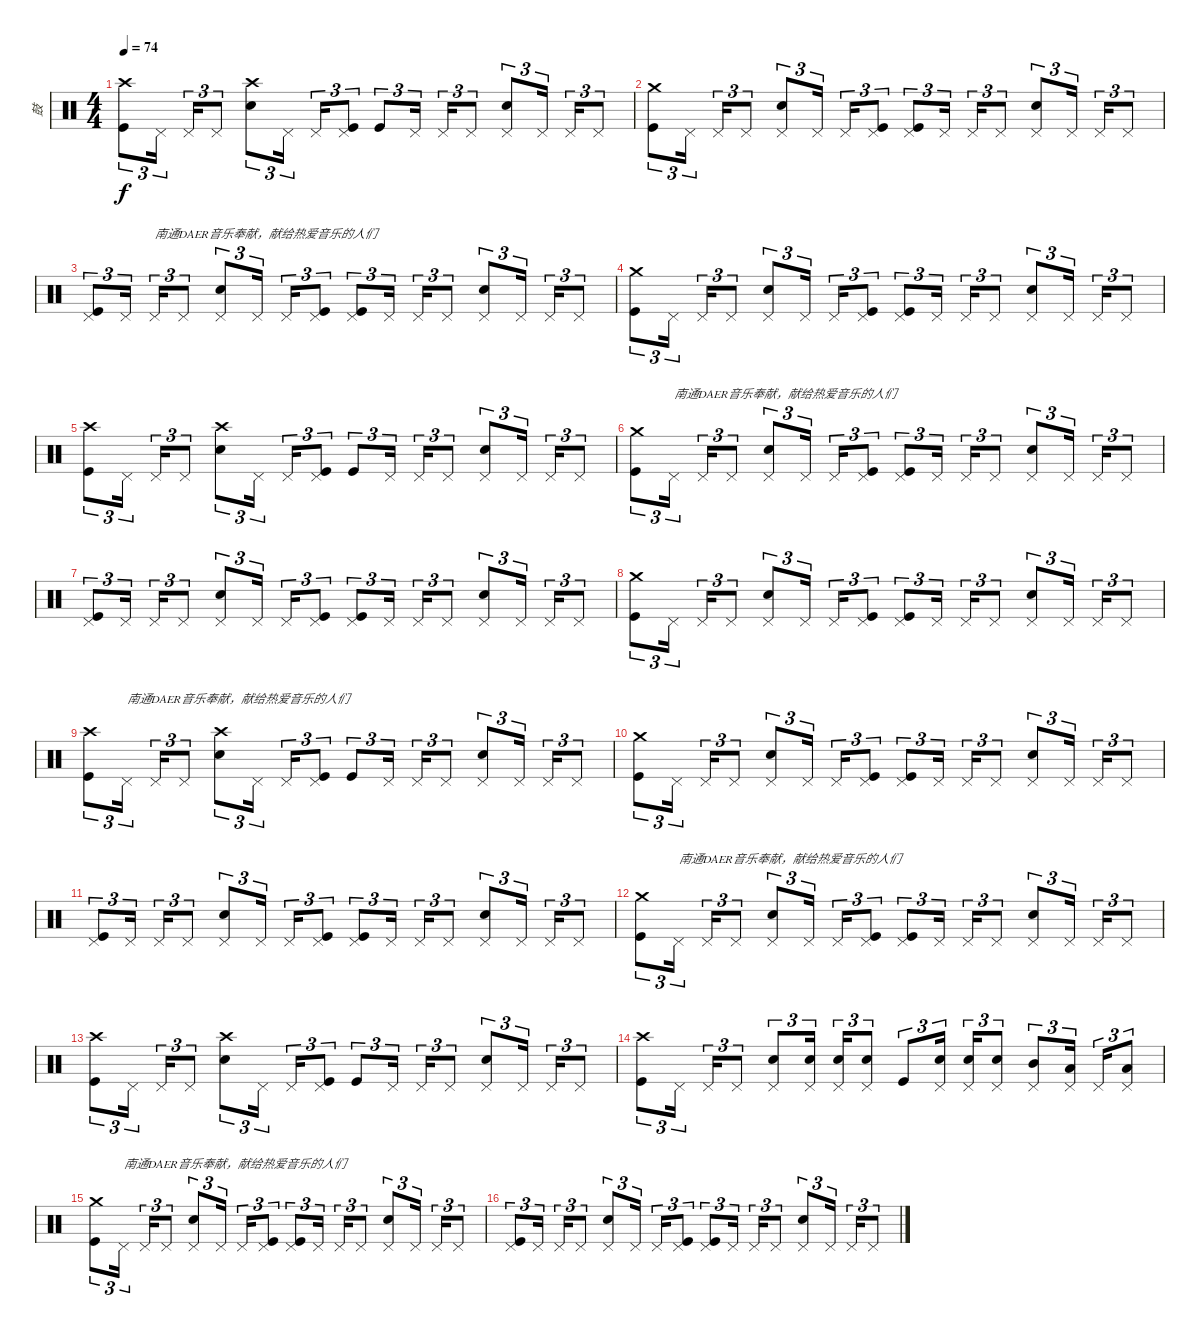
\track ("鼓" "鼓") {instrument percussion}
\staff {score}
\articulation defaults
\ts (4 4)
\tempo 74
\clef neutral
\ks c
("Crash high (hit)" "Kick (hit)").8{tu (3 2) dy f} "Pedal Hi-Hat (hit)".16{tu (3 2)} "Pedal Hi-Hat (hit)".16{tu (3 2)} "Pedal Hi-Hat (hit)".8{tu (3 2)} ("Crash high (hit)" "Electric Snare (hit)").8{tu (3 2)} "Pedal Hi-Hat (hit)".16{tu (3 2)} "Pedal Hi-Hat (hit)".16{tu (3 2)} ("Pedal Hi-Hat (hit)" "Kick (hit)").8{tu (3 2)} "Kick (hit)".8{tu (3 2)} "Pedal Hi-Hat (hit)".16{tu (3 2)} "Pedal Hi-Hat (hit)".16{tu (3 2)} "Pedal Hi-Hat (hit)".8{tu (3 2)} ("Pedal Hi-Hat (hit)" "Electric Snare (hit)").8{tu (3 2)} "Pedal Hi-Hat (hit)".16{tu (3 2)} "Pedal Hi-Hat (hit)".16{tu (3 2)} "Pedal Hi-Hat (hit)".8{tu (3 2)} |
("Crash medium (hit)" "Kick (hit)").8{tu (3 2)} "Pedal Hi-Hat (hit)".16{tu (3 2)} "Pedal Hi-Hat (hit)".16{tu (3 2)} "Pedal Hi-Hat (hit)".8{tu (3 2)} ("Pedal Hi-Hat (hit)" "Electric Snare (hit)").8{tu (3 2)} "Pedal Hi-Hat (hit)".16{tu (3 2)} "Pedal Hi-Hat (hit)".16{tu (3 2)} ("Pedal Hi-Hat (hit)" "Kick (hit)").8{tu (3 2)} ("Pedal Hi-Hat (hit)" "Kick (hit)").8{tu (3 2)} "Pedal Hi-Hat (hit)".16{tu (3 2)} "Pedal Hi-Hat (hit)".16{tu (3 2)} "Pedal Hi-Hat (hit)".8{tu (3 2)} ("Pedal Hi-Hat (hit)" "Electric Snare (hit)").8{tu (3 2)} "Pedal Hi-Hat (hit)".16{tu (3 2)} "Pedal Hi-Hat (hit)".16{tu (3 2)} "Pedal Hi-Hat (hit)".8{tu (3 2)} |
("Pedal Hi-Hat (hit)" "Kick (hit)").8{tu (3 2)} "Pedal Hi-Hat (hit)".16{tu (3 2)} "Pedal Hi-Hat (hit)".16{tu (3 2) txt "南通DAER音乐奉献，献给热爱音乐的人们"} "Pedal Hi-Hat (hit)".8{tu (3 2)} ("Pedal Hi-Hat (hit)" "Electric Snare (hit)").8{tu (3 2)} "Pedal Hi-Hat (hit)".16{tu (3 2)} "Pedal Hi-Hat (hit)".16{tu (3 2)} ("Pedal Hi-Hat (hit)" "Kick (hit)").8{tu (3 2)} ("Pedal Hi-Hat (hit)" "Kick (hit)").8{tu (3 2)} "Pedal Hi-Hat (hit)".16{tu (3 2)} "Pedal Hi-Hat (hit)".16{tu (3 2)} "Pedal Hi-Hat (hit)".8{tu (3 2)} ("Pedal Hi-Hat (hit)" "Electric Snare (hit)").8{tu (3 2)} "Pedal Hi-Hat (hit)".16{tu (3 2)} "Pedal Hi-Hat (hit)".16{tu (3 2)} "Pedal Hi-Hat (hit)".8{tu (3 2)} |
("Crash medium (hit)" "Kick (hit)").8{tu (3 2)} "Pedal Hi-Hat (hit)".16{tu (3 2)} "Pedal Hi-Hat (hit)".16{tu (3 2)} "Pedal Hi-Hat (hit)".8{tu (3 2)} ("Pedal Hi-Hat (hit)" "Electric Snare (hit)").8{tu (3 2)} "Pedal Hi-Hat (hit)".16{tu (3 2)} "Pedal Hi-Hat (hit)".16{tu (3 2)} ("Pedal Hi-Hat (hit)" "Kick (hit)").8{tu (3 2)} ("Pedal Hi-Hat (hit)" "Kick (hit)").8{tu (3 2)} "Pedal Hi-Hat (hit)".16{tu (3 2)} "Pedal Hi-Hat (hit)".16{tu (3 2)} "Pedal Hi-Hat (hit)".8{tu (3 2)} ("Pedal Hi-Hat (hit)" "Electric Snare (hit)").8{tu (3 2)} "Pedal Hi-Hat (hit)".16{tu (3 2)} "Pedal Hi-Hat (hit)".16{tu (3 2)} "Pedal Hi-Hat (hit)".8{tu (3 2)} |
("Crash high (hit)" "Kick (hit)").8{tu (3 2)} "Pedal Hi-Hat (hit)".16{tu (3 2)} "Pedal Hi-Hat (hit)".16{tu (3 2)} "Pedal Hi-Hat (hit)".8{tu (3 2)} ("Crash high (hit)" "Electric Snare (hit)").8{tu (3 2)} "Pedal Hi-Hat (hit)".16{tu (3 2)} "Pedal Hi-Hat (hit)".16{tu (3 2)} ("Pedal Hi-Hat (hit)" "Kick (hit)").8{tu (3 2)} "Kick (hit)".8{tu (3 2)} "Pedal Hi-Hat (hit)".16{tu (3 2)} "Pedal Hi-Hat (hit)".16{tu (3 2)} "Pedal Hi-Hat (hit)".8{tu (3 2)} ("Pedal Hi-Hat (hit)" "Electric Snare (hit)").8{tu (3 2)} "Pedal Hi-Hat (hit)".16{tu (3 2)} "Pedal Hi-Hat (hit)".16{tu (3 2)} "Pedal Hi-Hat (hit)".8{tu (3 2)} |
("Crash medium (hit)" "Kick (hit)").8{tu (3 2)} "Pedal Hi-Hat (hit)".16{tu (3 2) txt "南通DAER音乐奉献，献给热爱音乐的人们"} "Pedal Hi-Hat (hit)".16{tu (3 2)} "Pedal Hi-Hat (hit)".8{tu (3 2)} ("Pedal Hi-Hat (hit)" "Electric Snare (hit)").8{tu (3 2)} "Pedal Hi-Hat (hit)".16{tu (3 2)} "Pedal Hi-Hat (hit)".16{tu (3 2)} ("Pedal Hi-Hat (hit)" "Kick (hit)").8{tu (3 2)} ("Pedal Hi-Hat (hit)" "Kick (hit)").8{tu (3 2)} "Pedal Hi-Hat (hit)".16{tu (3 2)} "Pedal Hi-Hat (hit)".16{tu (3 2)} "Pedal Hi-Hat (hit)".8{tu (3 2)} ("Pedal Hi-Hat (hit)" "Electric Snare (hit)").8{tu (3 2)} "Pedal Hi-Hat (hit)".16{tu (3 2)} "Pedal Hi-Hat (hit)".16{tu (3 2)} "Pedal Hi-Hat (hit)".8{tu (3 2)} |
("Pedal Hi-Hat (hit)" "Kick (hit)").8{tu (3 2)} "Pedal Hi-Hat (hit)".16{tu (3 2)} "Pedal Hi-Hat (hit)".16{tu (3 2)} "Pedal Hi-Hat (hit)".8{tu (3 2)} ("Pedal Hi-Hat (hit)" "Electric Snare (hit)").8{tu (3 2)} "Pedal Hi-Hat (hit)".16{tu (3 2)} "Pedal Hi-Hat (hit)".16{tu (3 2)} ("Pedal Hi-Hat (hit)" "Kick (hit)").8{tu (3 2)} ("Pedal Hi-Hat (hit)" "Kick (hit)").8{tu (3 2)} "Pedal Hi-Hat (hit)".16{tu (3 2)} "Pedal Hi-Hat (hit)".16{tu (3 2)} "Pedal Hi-Hat (hit)".8{tu (3 2)} ("Pedal Hi-Hat (hit)" "Electric Snare (hit)").8{tu (3 2)} "Pedal Hi-Hat (hit)".16{tu (3 2)} "Pedal Hi-Hat (hit)".16{tu (3 2)} "Pedal Hi-Hat (hit)".8{tu (3 2)} |
("Crash medium (hit)" "Kick (hit)").8{tu (3 2)} "Pedal Hi-Hat (hit)".16{tu (3 2)} "Pedal Hi-Hat (hit)".16{tu (3 2)} "Pedal Hi-Hat (hit)".8{tu (3 2)} ("Pedal Hi-Hat (hit)" "Electric Snare (hit)").8{tu (3 2)} "Pedal Hi-Hat (hit)".16{tu (3 2)} "Pedal Hi-Hat (hit)".16{tu (3 2)} ("Pedal Hi-Hat (hit)" "Kick (hit)").8{tu (3 2)} ("Pedal Hi-Hat (hit)" "Kick (hit)").8{tu (3 2)} "Pedal Hi-Hat (hit)".16{tu (3 2)} "Pedal Hi-Hat (hit)".16{tu (3 2)} "Pedal Hi-Hat (hit)".8{tu (3 2)} ("Pedal Hi-Hat (hit)" "Electric Snare (hit)").8{tu (3 2)} "Pedal Hi-Hat (hit)".16{tu (3 2)} "Pedal Hi-Hat (hit)".16{tu (3 2)} "Pedal Hi-Hat (hit)".8{tu (3 2)} |
("Crash high (hit)" "Kick (hit)").8{tu (3 2)} "Pedal Hi-Hat (hit)".16{tu (3 2) txt "南通DAER音乐奉献，献给热爱音乐的人们"} "Pedal Hi-Hat (hit)".16{tu (3 2)} "Pedal Hi-Hat (hit)".8{tu (3 2)} ("Crash high (hit)" "Electric Snare (hit)").8{tu (3 2)} "Pedal Hi-Hat (hit)".16{tu (3 2)} "Pedal Hi-Hat (hit)".16{tu (3 2)} ("Pedal Hi-Hat (hit)" "Kick (hit)").8{tu (3 2)} "Kick (hit)".8{tu (3 2)} "Pedal Hi-Hat (hit)".16{tu (3 2)} "Pedal Hi-Hat (hit)".16{tu (3 2)} "Pedal Hi-Hat (hit)".8{tu (3 2)} ("Pedal Hi-Hat (hit)" "Electric Snare (hit)").8{tu (3 2)} "Pedal Hi-Hat (hit)".16{tu (3 2)} "Pedal Hi-Hat (hit)".16{tu (3 2)} "Pedal Hi-Hat (hit)".8{tu (3 2)} |
("Crash medium (hit)" "Kick (hit)").8{tu (3 2)} "Pedal Hi-Hat (hit)".16{tu (3 2)} "Pedal Hi-Hat (hit)".16{tu (3 2)} "Pedal Hi-Hat (hit)".8{tu (3 2)} ("Pedal Hi-Hat (hit)" "Electric Snare (hit)").8{tu (3 2)} "Pedal Hi-Hat (hit)".16{tu (3 2)} "Pedal Hi-Hat (hit)".16{tu (3 2)} ("Pedal Hi-Hat (hit)" "Kick (hit)").8{tu (3 2)} ("Pedal Hi-Hat (hit)" "Kick (hit)").8{tu (3 2)} "Pedal Hi-Hat (hit)".16{tu (3 2)} "Pedal Hi-Hat (hit)".16{tu (3 2)} "Pedal Hi-Hat (hit)".8{tu (3 2)} ("Pedal Hi-Hat (hit)" "Electric Snare (hit)").8{tu (3 2)} "Pedal Hi-Hat (hit)".16{tu (3 2)} "Pedal Hi-Hat (hit)".16{tu (3 2)} "Pedal Hi-Hat (hit)".8{tu (3 2)} |
("Pedal Hi-Hat (hit)" "Kick (hit)").8{tu (3 2)} "Pedal Hi-Hat (hit)".16{tu (3 2)} "Pedal Hi-Hat (hit)".16{tu (3 2)} "Pedal Hi-Hat (hit)".8{tu (3 2)} ("Pedal Hi-Hat (hit)" "Electric Snare (hit)").8{tu (3 2)} "Pedal Hi-Hat (hit)".16{tu (3 2)} "Pedal Hi-Hat (hit)".16{tu (3 2)} ("Pedal Hi-Hat (hit)" "Kick (hit)").8{tu (3 2)} ("Pedal Hi-Hat (hit)" "Kick (hit)").8{tu (3 2)} "Pedal Hi-Hat (hit)".16{tu (3 2)} "Pedal Hi-Hat (hit)".16{tu (3 2)} "Pedal Hi-Hat (hit)".8{tu (3 2)} ("Pedal Hi-Hat (hit)" "Electric Snare (hit)").8{tu (3 2)} "Pedal Hi-Hat (hit)".16{tu (3 2)} "Pedal Hi-Hat (hit)".16{tu (3 2)} "Pedal Hi-Hat (hit)".8{tu (3 2)} |
("Crash medium (hit)" "Kick (hit)").8{tu (3 2)} "Pedal Hi-Hat (hit)".16{tu (3 2) txt "南通DAER音乐奉献，献给热爱音乐的人们"} "Pedal Hi-Hat (hit)".16{tu (3 2)} "Pedal Hi-Hat (hit)".8{tu (3 2)} ("Pedal Hi-Hat (hit)" "Electric Snare (hit)").8{tu (3 2)} "Pedal Hi-Hat (hit)".16{tu (3 2)} "Pedal Hi-Hat (hit)".16{tu (3 2)} ("Pedal Hi-Hat (hit)" "Kick (hit)").8{tu (3 2)} ("Pedal Hi-Hat (hit)" "Kick (hit)").8{tu (3 2)} "Pedal Hi-Hat (hit)".16{tu (3 2)} "Pedal Hi-Hat (hit)".16{tu (3 2)} "Pedal Hi-Hat (hit)".8{tu (3 2)} ("Pedal Hi-Hat (hit)" "Electric Snare (hit)").8{tu (3 2)} "Pedal Hi-Hat (hit)".16{tu (3 2)} "Pedal Hi-Hat (hit)".16{tu (3 2)} "Pedal Hi-Hat (hit)".8{tu (3 2)} |
("Crash high (hit)" "Kick (hit)").8{tu (3 2)} "Pedal Hi-Hat (hit)".16{tu (3 2)} "Pedal Hi-Hat (hit)".16{tu (3 2)} "Pedal Hi-Hat (hit)".8{tu (3 2)} ("Crash high (hit)" "Electric Snare (hit)").8{tu (3 2)} "Pedal Hi-Hat (hit)".16{tu (3 2)} "Pedal Hi-Hat (hit)".16{tu (3 2)} ("Pedal Hi-Hat (hit)" "Kick (hit)").8{tu (3 2)} "Kick (hit)".8{tu (3 2)} "Pedal Hi-Hat (hit)".16{tu (3 2)} "Pedal Hi-Hat (hit)".16{tu (3 2)} "Pedal Hi-Hat (hit)".8{tu (3 2)} ("Pedal Hi-Hat (hit)" "Electric Snare (hit)").8{tu (3 2)} "Pedal Hi-Hat (hit)".16{tu (3 2)} "Pedal Hi-Hat (hit)".16{tu (3 2)} "Pedal Hi-Hat (hit)".8{tu (3 2)} |
("Crash high (hit)" "Kick (hit)").8{tu (3 2)} "Pedal Hi-Hat (hit)".16{tu (3 2)} "Pedal Hi-Hat (hit)".16{tu (3 2)} "Pedal Hi-Hat (hit)".8{tu (3 2)} ("Pedal Hi-Hat (hit)" "Electric Snare (hit)").8{tu (3 2)} ("Pedal Hi-Hat (hit)" "Electric Snare (hit)").16{tu (3 2)} ("Pedal Hi-Hat (hit)" "Electric Snare (hit)").16{tu (3 2)} ("Pedal Hi-Hat (hit)" "Electric Snare (hit)").8{tu (3 2)} "Kick (hit)".8{tu (3 2)} ("Pedal Hi-Hat (hit)" "Electric Snare (hit)").16{tu (3 2)} ("Pedal Hi-Hat (hit)" "Electric Snare (hit)").16{tu (3 2)} ("Pedal Hi-Hat (hit)" "Electric Snare (hit)").8{tu (3 2)} ("Pedal Hi-Hat (hit)" "Mid Tom (hit)").8{tu (3 2)} ("Pedal Hi-Hat (hit)" "Low Tom (hit)").16{tu (3 2)} "Pedal Hi-Hat (hit)".16{tu (3 2)} ("Pedal Hi-Hat (hit)" "Low Floor Tom (hit)").8{tu (3 2)} |
("Crash medium (hit)" "Kick (hit)").8{tu (3 2)} "Pedal Hi-Hat (hit)".16{tu (3 2) txt "南通DAER音乐奉献，献给热爱音乐的人们"} "Pedal Hi-Hat (hit)".16{tu (3 2)} "Pedal Hi-Hat (hit)".8{tu (3 2)} ("Pedal Hi-Hat (hit)" "Electric Snare (hit)").8{tu (3 2)} "Pedal Hi-Hat (hit)".16{tu (3 2)} "Pedal Hi-Hat (hit)".16{tu (3 2)} ("Pedal Hi-Hat (hit)" "Kick (hit)").8{tu (3 2)} ("Pedal Hi-Hat (hit)" "Kick (hit)").8{tu (3 2)} "Pedal Hi-Hat (hit)".16{tu (3 2)} "Pedal Hi-Hat (hit)".16{tu (3 2)} "Pedal Hi-Hat (hit)".8{tu (3 2)} ("Pedal Hi-Hat (hit)" "Electric Snare (hit)").8{tu (3 2)} "Pedal Hi-Hat (hit)".16{tu (3 2)} "Pedal Hi-Hat (hit)".16{tu (3 2)} "Pedal Hi-Hat (hit)".8{tu (3 2)} |
("Pedal Hi-Hat (hit)" "Kick (hit)").8{tu (3 2)} "Pedal Hi-Hat (hit)".16{tu (3 2)} "Pedal Hi-Hat (hit)".16{tu (3 2)} "Pedal Hi-Hat (hit)".8{tu (3 2)} ("Pedal Hi-Hat (hit)" "Electric Snare (hit)").8{tu (3 2)} "Pedal Hi-Hat (hit)".16{tu (3 2)} "Pedal Hi-Hat (hit)".16{tu (3 2)} ("Pedal Hi-Hat (hit)" "Kick (hit)").8{tu (3 2)} ("Pedal Hi-Hat (hit)" "Kick (hit)").8{tu (3 2)} "Pedal Hi-Hat (hit)".16{tu (3 2)} "Pedal Hi-Hat (hit)".16{tu (3 2)} "Pedal Hi-Hat (hit)".8{tu (3 2)} ("Pedal Hi-Hat (hit)" "Electric Snare (hit)").8{tu (3 2)} "Pedal Hi-Hat (hit)".16{tu (3 2)} "Pedal Hi-Hat (hit)".16{tu (3 2)} "Pedal Hi-Hat (hit)".8{tu (3 2)}
